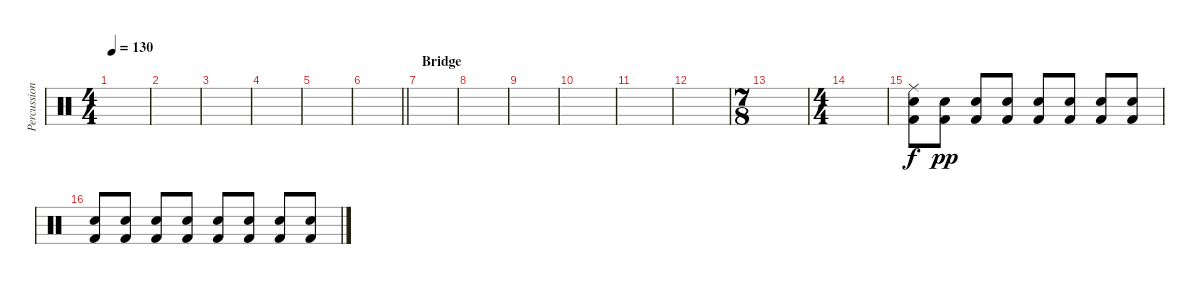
\track ("Percussion" "Percussion") {instrument percussion}
\staff {score}
\articulation defaults
\ts (4 4)
\tempo 130
\clef neutral
\ks c
|
|
|
|
|
\barLineRight lightlight
|
\section ("" "Bridge")
|
|
|
|
|
|
\ts (7 8)
|
\ts (4 4)
|
("Ride (middle)" "Electric Snare (hit)" "Kick (hit) 2").8 ("Electric Snare (hit)" "Kick (hit) 2").8{dy pp} ("Electric Snare (hit)" "Kick (hit) 2").8 ("Electric Snare (hit)" "Kick (hit) 2").8 ("Electric Snare (hit)" "Kick (hit) 2").8 ("Electric Snare (hit)" "Kick (hit) 2").8 ("Electric Snare (hit)" "Kick (hit) 2").8 ("Electric Snare (hit)" "Kick (hit) 2").8 |
("Electric Snare (hit)" "Kick (hit) 2").8 ("Electric Snare (hit)" "Kick (hit) 2").8 ("Electric Snare (hit)" "Kick (hit) 2").8 ("Electric Snare (hit)" "Kick (hit) 2").8 ("Electric Snare (hit)" "Kick (hit) 2").8 ("Electric Snare (hit)" "Kick (hit) 2").8 ("Electric Snare (hit)" "Kick (hit) 2").8 ("Electric Snare (hit)" "Kick (hit) 2").8
